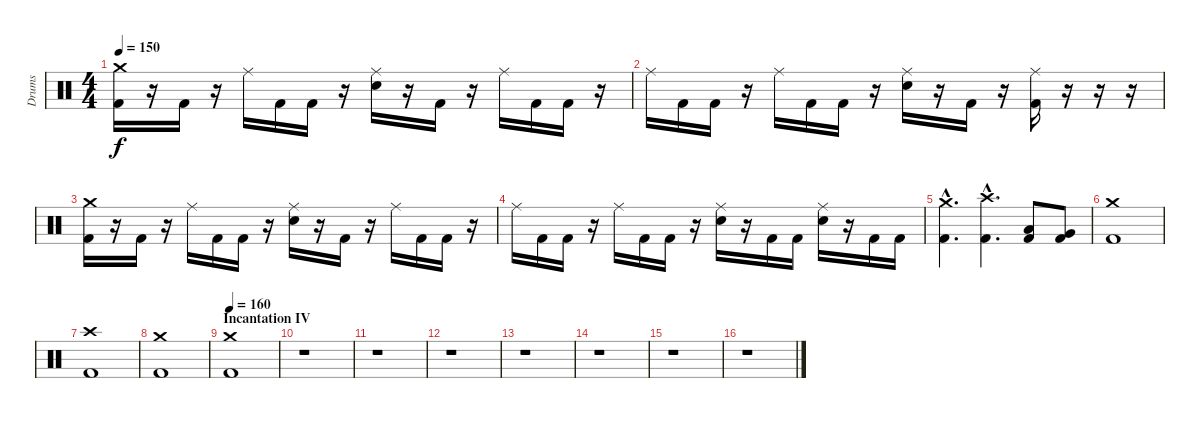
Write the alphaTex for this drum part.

\track ("Drums" "Drums") {instrument percussion}
\staff {score}
\articulation defaults
\ts (4 4)
\section ("" "")
\tempo 150
\clef neutral
\ks c
("Crash medium (hit)" "Kick (hit) 2").16{dy f} r.16 "Kick (hit) 2".16 r.16 "Ride (middle)".16 "Kick (hit) 2".16 "Kick (hit) 2".16 r.16 ("Ride (middle)" "Electric Snare (hit)").16 r.16 "Kick (hit) 2".16 r.16 "Ride (middle)".16 "Kick (hit) 2".16 "Kick (hit) 2".16 r.16 |
"Ride (middle)".16 "Kick (hit) 2".16 "Kick (hit) 2".16 r.16 "Ride (middle)".16 "Kick (hit) 2".16 "Kick (hit) 2".16 r.16 ("Ride (middle)" "Electric Snare (hit)").16 r.16 "Kick (hit) 2".16 r.16 ("Ride (middle)" "Kick (hit) 2").16 r.16 r.16 r.16 |
("Crash medium (hit)" "Kick (hit) 2").16 r.16 "Kick (hit) 2".16 r.16 "Ride (middle)".16 "Kick (hit) 2".16 "Kick (hit) 2".16 r.16 ("Ride (middle)" "Electric Snare (hit)").16 r.16 "Kick (hit) 2".16 r.16 "Ride (middle)".16 "Kick (hit) 2".16 "Kick (hit) 2".16 r.16 |
"Ride (middle)".16 "Kick (hit) 2".16 "Kick (hit) 2".16 r.16 "Ride (middle)".16 "Kick (hit) 2".16 "Kick (hit) 2".16 r.16 ("Ride (middle)" "Electric Snare (hit)").16 r.16 "Kick (hit) 2".16 "Kick (hit) 2".16 ("Ride (middle)" "Electric Snare (hit)").16 r.16 "Kick (hit) 2".16 "Kick (hit) 2".16 |
\section ("" "")
("Crash medium (hit)"{hac} "Kick (hit) 2"{hac}).4{d} ("Crash high (hit)"{hac} "Kick (hit) 2"{hac}).4{d} ("Low Floor Tom (hit)" "Kick (hit) 2").8 ("Very Low Tom (hit)" "Kick (hit) 2").8 |
("Crash medium (hit)" "Kick (hit) 2").1 |
("Crash high (hit)" "Kick (hit) 2").1 |
("Crash medium (hit)" "Kick (hit) 2").1 |
\section ("" "Incantation IV")
\tempo 160
("Crash medium (hit)" "Kick (hit) 2").1 |
r.1 |
r.1 |
r.1 |
r.1 |
r.1 |
r.1 |
r.1
